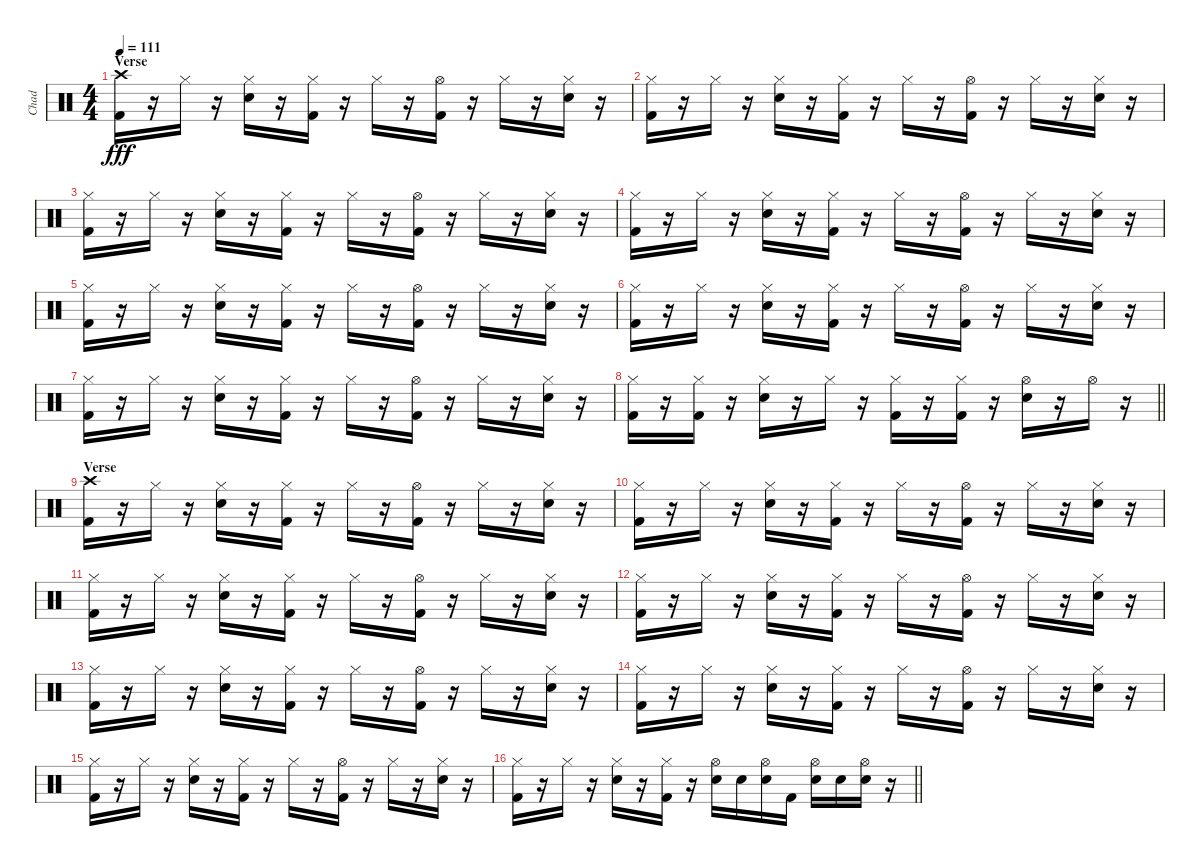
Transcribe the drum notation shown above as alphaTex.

\track ("Chad" "Chad") {instrument percussion}
\staff {score}
\articulation defaults
\ts (4 4)
\section ("" "Verse")
\tempo 111
\clef neutral
\ks c
("Crash high (hit)" "Kick (hit) 2").16{dy fff} r.16 "Hi-Hat (closed)".16 r.16 ("Hi-Hat (closed)" "Electric Snare (hit)").16 r.16 ("Hi-Hat (closed)" "Kick (hit) 2").16 r.16 "Hi-Hat (closed)".16 r.16 ("Hi-Hat (open)" "Kick (hit) 2").16 r.16 "Hi-Hat (closed)".16 r.16 ("Hi-Hat (closed)" "Electric Snare (hit)").16 r.16 |
("Hi-Hat (closed)" "Kick (hit) 2").16 r.16 "Hi-Hat (closed)".16 r.16 ("Hi-Hat (closed)" "Electric Snare (hit)").16 r.16 ("Hi-Hat (closed)" "Kick (hit) 2").16 r.16 "Hi-Hat (closed)".16 r.16 ("Hi-Hat (open)" "Kick (hit) 2").16 r.16 "Hi-Hat (closed)".16 r.16 ("Hi-Hat (closed)" "Electric Snare (hit)").16 r.16 |
("Hi-Hat (closed)" "Kick (hit) 2").16 r.16 "Hi-Hat (closed)".16 r.16 ("Hi-Hat (closed)" "Electric Snare (hit)").16 r.16 ("Hi-Hat (closed)" "Kick (hit) 2").16 r.16 "Hi-Hat (closed)".16 r.16 ("Hi-Hat (open)" "Kick (hit) 2").16 r.16 "Hi-Hat (closed)".16 r.16 ("Hi-Hat (closed)" "Electric Snare (hit)").16 r.16 |
("Hi-Hat (closed)" "Kick (hit) 2").16 r.16 "Hi-Hat (closed)".16 r.16 ("Hi-Hat (closed)" "Electric Snare (hit)").16 r.16 ("Hi-Hat (closed)" "Kick (hit) 2").16 r.16 "Hi-Hat (closed)".16 r.16 ("Hi-Hat (open)" "Kick (hit) 2").16 r.16 "Hi-Hat (closed)".16 r.16 ("Hi-Hat (closed)" "Electric Snare (hit)").16 r.16 |
("Hi-Hat (closed)" "Kick (hit) 2").16 r.16 "Hi-Hat (closed)".16 r.16 ("Hi-Hat (closed)" "Electric Snare (hit)").16 r.16 ("Hi-Hat (closed)" "Kick (hit) 2").16 r.16 "Hi-Hat (closed)".16 r.16 ("Hi-Hat (open)" "Kick (hit) 2").16 r.16 "Hi-Hat (closed)".16 r.16 ("Hi-Hat (closed)" "Electric Snare (hit)").16 r.16 |
("Hi-Hat (closed)" "Kick (hit) 2").16 r.16 "Hi-Hat (closed)".16 r.16 ("Hi-Hat (closed)" "Electric Snare (hit)").16 r.16 ("Hi-Hat (closed)" "Kick (hit) 2").16 r.16 "Hi-Hat (closed)".16 r.16 ("Hi-Hat (open)" "Kick (hit) 2").16 r.16 "Hi-Hat (closed)".16 r.16 ("Hi-Hat (closed)" "Electric Snare (hit)").16 r.16 |
("Hi-Hat (closed)" "Kick (hit) 2").16 r.16 "Hi-Hat (closed)".16 r.16 ("Hi-Hat (closed)" "Electric Snare (hit)").16 r.16 ("Hi-Hat (closed)" "Kick (hit) 2").16 r.16 "Hi-Hat (closed)".16 r.16 ("Hi-Hat (open)" "Kick (hit) 2").16 r.16 "Hi-Hat (closed)".16 r.16 ("Hi-Hat (closed)" "Electric Snare (hit)").16 r.16 |
\barLineRight lightlight
("Hi-Hat (closed)" "Kick (hit) 2").16 r.16 ("Hi-Hat (closed)" "Kick (hit) 2").16 r.16 ("Hi-Hat (closed)" "Electric Snare (hit)").16 r.16 "Hi-Hat (closed)".16 r.16 ("Hi-Hat (closed)" "Kick (hit) 2").16 r.16 ("Hi-Hat (closed)" "Kick (hit) 2").16 r.16 ("Hi-Hat (open)" "Electric Snare (hit)").16 r.16 "Hi-Hat (open)".16 r.16 |
\section ("" "Verse")
("Crash high (hit)" "Kick (hit) 2").16 r.16 "Hi-Hat (closed)".16 r.16 ("Hi-Hat (closed)" "Electric Snare (hit)").16 r.16 ("Hi-Hat (closed)" "Kick (hit) 2").16 r.16 "Hi-Hat (closed)".16 r.16 ("Hi-Hat (open)" "Kick (hit) 2").16 r.16 "Hi-Hat (closed)".16 r.16 ("Hi-Hat (closed)" "Electric Snare (hit)").16 r.16 |
("Hi-Hat (closed)" "Kick (hit) 2").16 r.16 "Hi-Hat (closed)".16 r.16 ("Hi-Hat (closed)" "Electric Snare (hit)").16 r.16 ("Hi-Hat (closed)" "Kick (hit) 2").16 r.16 "Hi-Hat (closed)".16 r.16 ("Hi-Hat (open)" "Kick (hit) 2").16 r.16 "Hi-Hat (closed)".16 r.16 ("Hi-Hat (closed)" "Electric Snare (hit)").16 r.16 |
("Hi-Hat (closed)" "Kick (hit) 2").16 r.16 "Hi-Hat (closed)".16 r.16 ("Hi-Hat (closed)" "Electric Snare (hit)").16 r.16 ("Hi-Hat (closed)" "Kick (hit) 2").16 r.16 "Hi-Hat (closed)".16 r.16 ("Hi-Hat (open)" "Kick (hit) 2").16 r.16 "Hi-Hat (closed)".16 r.16 ("Hi-Hat (closed)" "Electric Snare (hit)").16 r.16 |
("Hi-Hat (closed)" "Kick (hit) 2").16 r.16 "Hi-Hat (closed)".16 r.16 ("Hi-Hat (closed)" "Electric Snare (hit)").16 r.16 ("Hi-Hat (closed)" "Kick (hit) 2").16 r.16 "Hi-Hat (closed)".16 r.16 ("Hi-Hat (open)" "Kick (hit) 2").16 r.16 "Hi-Hat (closed)".16 r.16 ("Hi-Hat (closed)" "Electric Snare (hit)").16 r.16 |
("Hi-Hat (closed)" "Kick (hit) 2").16 r.16 "Hi-Hat (closed)".16 r.16 ("Hi-Hat (closed)" "Electric Snare (hit)").16 r.16 ("Hi-Hat (closed)" "Kick (hit) 2").16 r.16 "Hi-Hat (closed)".16 r.16 ("Hi-Hat (open)" "Kick (hit) 2").16 r.16 "Hi-Hat (closed)".16 r.16 ("Hi-Hat (closed)" "Electric Snare (hit)").16 r.16 |
("Hi-Hat (closed)" "Kick (hit) 2").16 r.16 "Hi-Hat (closed)".16 r.16 ("Hi-Hat (closed)" "Electric Snare (hit)").16 r.16 ("Hi-Hat (closed)" "Kick (hit) 2").16 r.16 "Hi-Hat (closed)".16 r.16 ("Hi-Hat (open)" "Kick (hit) 2").16 r.16 "Hi-Hat (closed)".16 r.16 ("Hi-Hat (closed)" "Electric Snare (hit)").16 r.16 |
("Hi-Hat (closed)" "Kick (hit) 2").16 r.16 "Hi-Hat (closed)".16 r.16 ("Hi-Hat (closed)" "Electric Snare (hit)").16 r.16 ("Hi-Hat (closed)" "Kick (hit) 2").16 r.16 "Hi-Hat (closed)".16 r.16 ("Hi-Hat (open)" "Kick (hit) 2").16 r.16 "Hi-Hat (closed)".16 r.16 ("Hi-Hat (closed)" "Electric Snare (hit)").16 r.16 |
\barLineRight lightlight
("Hi-Hat (closed)" "Kick (hit) 2").16 r.16 "Hi-Hat (closed)".16 r.16 ("Hi-Hat (closed)" "Electric Snare (hit)").16 r.16 ("Hi-Hat (closed)" "Kick (hit) 2").16 r.16 ("Hi-Hat (open)" "Electric Snare (hit)").16 "Electric Snare (hit)".16 ("Hi-Hat (open)" "Electric Snare (hit)").16 "Kick (hit) 2".16 ("Hi-Hat (open)" "Electric Snare (hit)").16 "Electric Snare (hit)".16 ("Hi-Hat (open)" "Electric Snare (hit)").16 r.16
